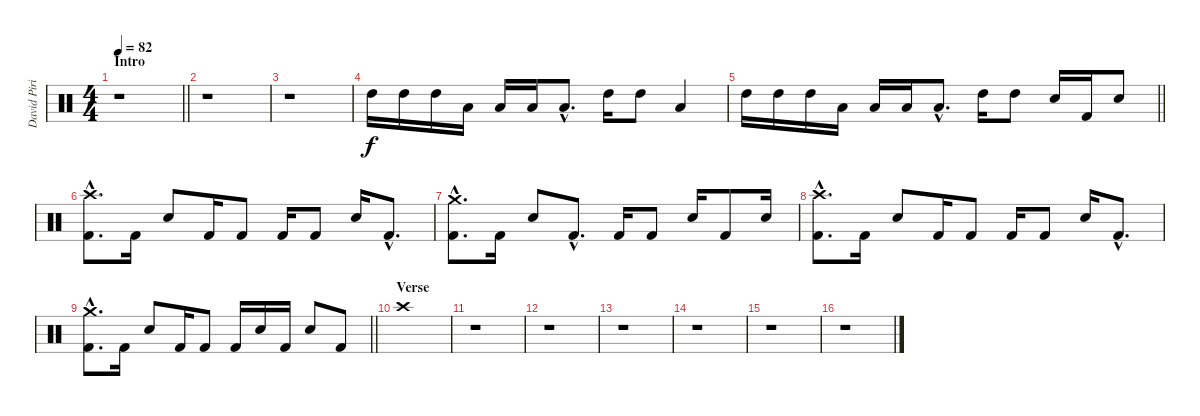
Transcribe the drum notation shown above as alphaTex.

\track ("David Piribauer (Drums)" "David Piri") {instrument percussion}
\staff {score}
\articulation defaults
\ts (4 4)
\section ("" "Intro")
\tempo 82
\clef neutral
\barLineRight lightlight
\ks c
r.1{dy f} |
r.1 |
r.1 |
"High Tom (hit)".16 "High Tom (hit)".16 "High Tom (hit)".16 "Low Tom (hit)".16 "Low Tom (hit)".16 "Low Tom (hit)".16 "Low Floor Tom (hit)"{hac}.8{d} "High Tom (hit)".16 "High Tom (hit)".8 "Low Floor Tom (hit)".4 |
\barLineRight lightlight "High Tom (hit)".16 "High Tom (hit)".16 "High Tom (hit)".16 "Low Tom (hit)".16 "Low Tom (hit)".16 "Low Tom (hit)".16 "Low Floor Tom (hit)"{hac}.8{d} "High Tom (hit)".16 "High Tom (hit)".8 "Electric Snare (hit)".16 "Kick (hit) 2".16 "Electric Snare (hit)".8
|
("Crash high (hit)"{hac} "Kick (hit) 2"{hac}).8{d} "Kick (hit) 2".16 "Electric Snare (hit)".8 "Kick (hit) 2".16 "Kick (hit) 2".8 "Kick (hit) 2".16 "Kick (hit) 2".8 "Electric Snare (hit)".16 "Kick (hit) 2"{hac}.8{d} |
("Crash medium (hit)"{hac} "Kick (hit) 2"{hac}).8{d} "Kick (hit) 2".16 "Electric Snare (hit)".8 "Kick (hit) 2"{hac}.8{d} "Kick (hit) 2".16 "Kick (hit) 2".8 "Electric Snare (hit)".16 "Kick (hit) 2".8 "Electric Snare (hit)".16 |
("Crash high (hit)"{hac} "Kick (hit) 2"{hac}).8{d} "Kick (hit) 2".16 "Electric Snare (hit)".8 "Kick (hit) 2".16 "Kick (hit) 2".8 "Kick (hit) 2".16 "Kick (hit) 2".8 "Electric Snare (hit)".16 "Kick (hit) 2"{hac}.8{d} |
\barLineRight lightlight
("Crash medium (hit)"{hac} "Kick (hit) 2"{hac}).8{d} "Kick (hit) 2".16 "Electric Snare (hit)".8 "Kick (hit) 2".16 "Kick (hit) 2".8 "Kick (hit) 2".16 "Electric Snare (hit)".16 "Kick (hit) 2".16 "Electric Snare (hit)".8 "Kick (hit) 2".8 |
\section ("" "Verse")
"Crash high (hit)".1 |
r.1 |
r.1 |
r.1 |
r.1 |
r.1 |
r.1
